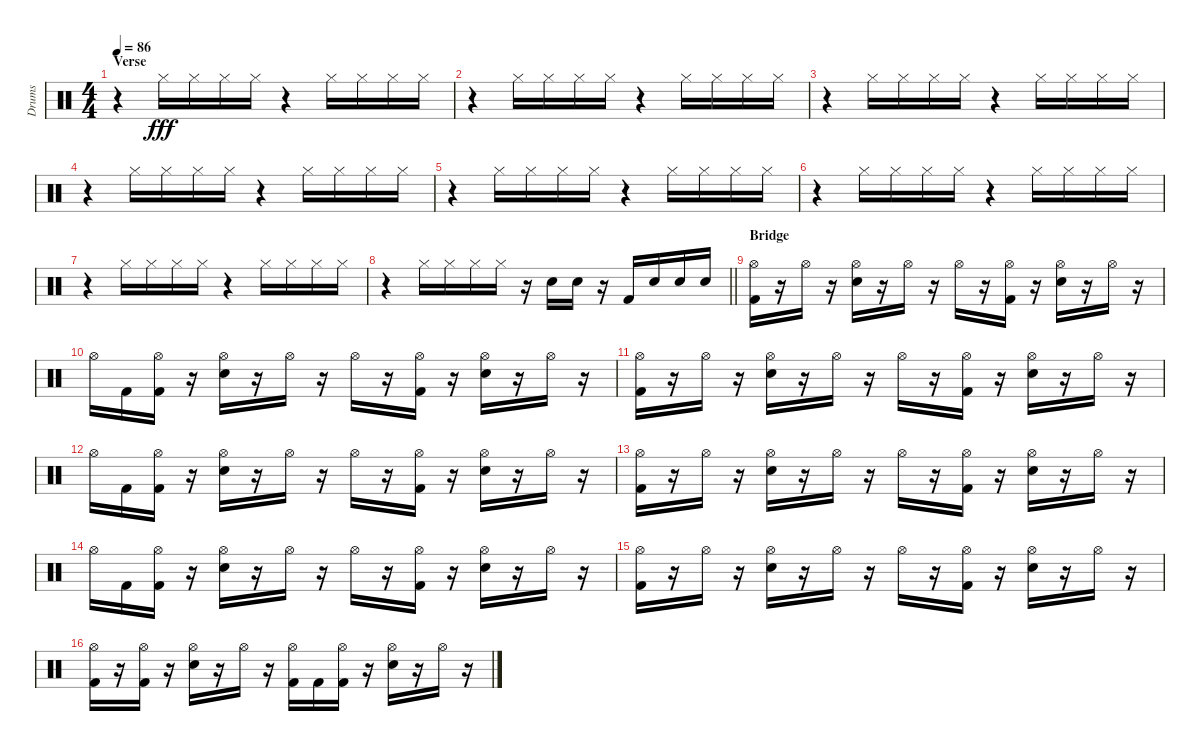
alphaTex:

\track ("Drums" "Drums") {instrument percussion}
\staff {score}
\articulation defaults
\ts (4 4)
\section ("" "Verse")
\tempo 86
\clef neutral
\ks c
r.4{dy fff} "Hi-Hat (closed)".16 "Hi-Hat (closed)".16 "Hi-Hat (closed)".16 "Hi-Hat (closed)".16 r.4 "Hi-Hat (closed)".16 "Hi-Hat (closed)".16 "Hi-Hat (closed)".16 "Hi-Hat (closed)".16 |
r.4 "Hi-Hat (closed)".16 "Hi-Hat (closed)".16 "Hi-Hat (closed)".16 "Hi-Hat (closed)".16 r.4 "Hi-Hat (closed)".16 "Hi-Hat (closed)".16 "Hi-Hat (closed)".16 "Hi-Hat (closed)".16 |
r.4 "Hi-Hat (closed)".16 "Hi-Hat (closed)".16 "Hi-Hat (closed)".16 "Hi-Hat (closed)".16 r.4 "Hi-Hat (closed)".16 "Hi-Hat (closed)".16 "Hi-Hat (closed)".16 "Hi-Hat (closed)".16 |
r.4 "Hi-Hat (closed)".16 "Hi-Hat (closed)".16 "Hi-Hat (closed)".16 "Hi-Hat (closed)".16 r.4 "Hi-Hat (closed)".16 "Hi-Hat (closed)".16 "Hi-Hat (closed)".16 "Hi-Hat (closed)".16 |
r.4 "Hi-Hat (closed)".16 "Hi-Hat (closed)".16 "Hi-Hat (closed)".16 "Hi-Hat (closed)".16 r.4 "Hi-Hat (closed)".16 "Hi-Hat (closed)".16 "Hi-Hat (closed)".16 "Hi-Hat (closed)".16 |
r.4 "Hi-Hat (closed)".16 "Hi-Hat (closed)".16 "Hi-Hat (closed)".16 "Hi-Hat (closed)".16 r.4 "Hi-Hat (closed)".16 "Hi-Hat (closed)".16 "Hi-Hat (closed)".16 "Hi-Hat (closed)".16 |
r.4 "Hi-Hat (closed)".16 "Hi-Hat (closed)".16 "Hi-Hat (closed)".16 "Hi-Hat (closed)".16 r.4 "Hi-Hat (closed)".16 "Hi-Hat (closed)".16 "Hi-Hat (closed)".16 "Hi-Hat (closed)".16 |
\barLineRight lightlight
r.4 "Hi-Hat (closed)".16 "Hi-Hat (closed)".16 "Hi-Hat (closed)".16 "Hi-Hat (closed)".16 r.16 "Electric Snare (hit)".16 "Electric Snare (hit)".16 r.16 "Kick (hit) 2".16 "Electric Snare (hit)".16 "Electric Snare (hit)".16 "Electric Snare (hit)".16 |
\section ("" "Bridge")
("Hi-Hat (open)" "Kick (hit) 2").16 r.16 "Hi-Hat (open)".16 r.16 ("Hi-Hat (open)" "Electric Snare (hit)").16 r.16 "Hi-Hat (open)".16 r.16 "Hi-Hat (open)".16 r.16 ("Hi-Hat (open)" "Kick (hit) 2").16 r.16 ("Hi-Hat (open)" "Electric Snare (hit)").16 r.16 "Hi-Hat (open)".16 r.16 |
"Hi-Hat (open)".16 "Kick (hit) 2".16 ("Hi-Hat (open)" "Kick (hit) 2").16 r.16 ("Hi-Hat (open)" "Electric Snare (hit)").16 r.16 "Hi-Hat (open)".16 r.16 "Hi-Hat (open)".16 r.16 ("Hi-Hat (open)" "Kick (hit) 2").16 r.16 ("Hi-Hat (open)" "Electric Snare (hit)").16 r.16 "Hi-Hat (open)".16 r.16 |
("Hi-Hat (open)" "Kick (hit) 2").16 r.16 "Hi-Hat (open)".16 r.16 ("Hi-Hat (open)" "Electric Snare (hit)").16 r.16 "Hi-Hat (open)".16 r.16 "Hi-Hat (open)".16 r.16 ("Hi-Hat (open)" "Kick (hit) 2").16 r.16 ("Hi-Hat (open)" "Electric Snare (hit)").16 r.16 "Hi-Hat (open)".16 r.16 |
"Hi-Hat (open)".16 "Kick (hit) 2".16 ("Hi-Hat (open)" "Kick (hit) 2").16 r.16 ("Hi-Hat (open)" "Electric Snare (hit)").16 r.16 "Hi-Hat (open)".16 r.16 "Hi-Hat (open)".16 r.16 ("Hi-Hat (open)" "Kick (hit) 2").16 r.16 ("Hi-Hat (open)" "Electric Snare (hit)").16 r.16 "Hi-Hat (open)".16 r.16 |
("Hi-Hat (open)" "Kick (hit) 2").16 r.16 "Hi-Hat (open)".16 r.16 ("Hi-Hat (open)" "Electric Snare (hit)").16 r.16 "Hi-Hat (open)".16 r.16 "Hi-Hat (open)".16 r.16 ("Hi-Hat (open)" "Kick (hit) 2").16 r.16 ("Hi-Hat (open)" "Electric Snare (hit)").16 r.16 "Hi-Hat (open)".16 r.16 |
"Hi-Hat (open)".16 "Kick (hit) 2".16 ("Hi-Hat (open)" "Kick (hit) 2").16 r.16 ("Hi-Hat (open)" "Electric Snare (hit)").16 r.16 "Hi-Hat (open)".16 r.16 "Hi-Hat (open)".16 r.16 ("Hi-Hat (open)" "Kick (hit) 2").16 r.16 ("Hi-Hat (open)" "Electric Snare (hit)").16 r.16 "Hi-Hat (open)".16 r.16 |
("Hi-Hat (open)" "Kick (hit) 2").16 r.16 "Hi-Hat (open)".16 r.16 ("Hi-Hat (open)" "Electric Snare (hit)").16 r.16 "Hi-Hat (open)".16 r.16 "Hi-Hat (open)".16 r.16 ("Hi-Hat (open)" "Kick (hit) 2").16 r.16 ("Hi-Hat (open)" "Electric Snare (hit)").16 r.16 "Hi-Hat (open)".16 r.16 |
("Hi-Hat (open)" "Kick (hit) 2").16 r.16 ("Hi-Hat (open)" "Kick (hit) 2").16 r.16 ("Hi-Hat (open)" "Electric Snare (hit)").16 r.16 "Hi-Hat (open)".16 r.16 ("Hi-Hat (open)" "Kick (hit) 2").16 "Kick (hit) 2".16 ("Hi-Hat (open)" "Kick (hit) 2").16 r.16 ("Hi-Hat (open)" "Electric Snare (hit)").16 r.16 "Hi-Hat (open)".16 r.16
